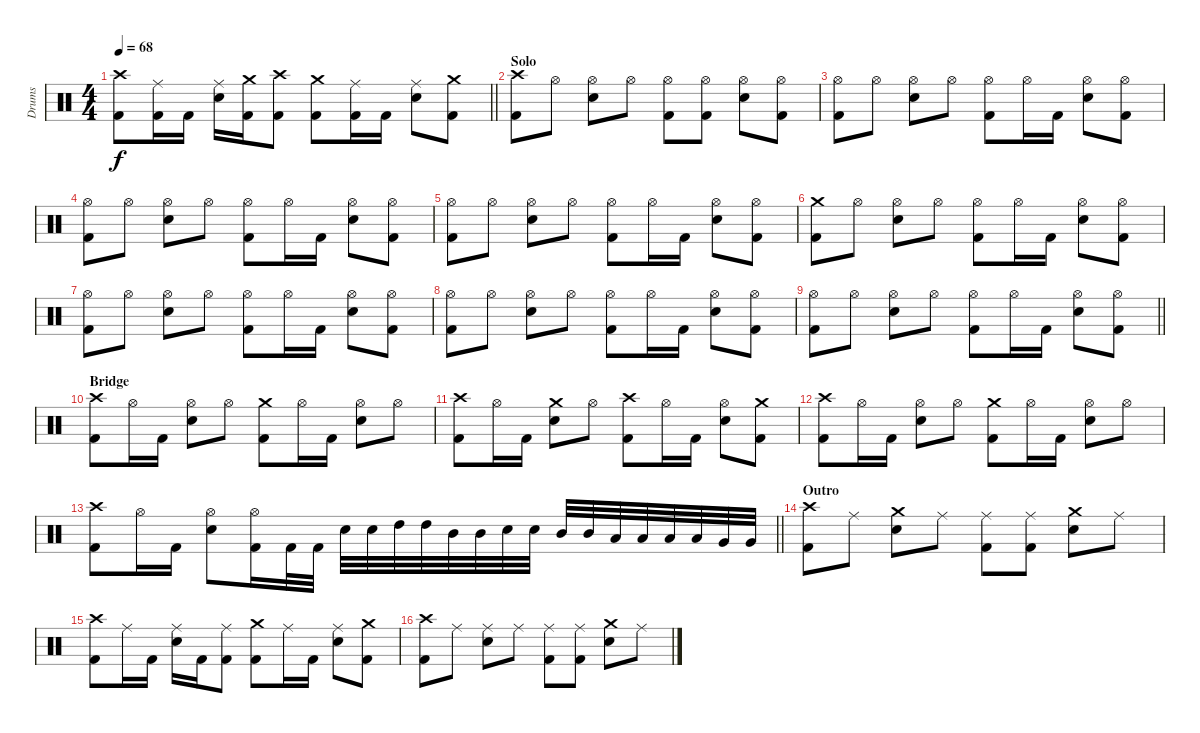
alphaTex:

\track ("Drums" "Drums") {instrument percussion}
\staff {score}
\articulation defaults
\ts (4 4)
\tempo 68
\clef neutral
\barLineRight lightlight
\ks c
("Crash high (hit)" "Kick (hit) 2").8{dy f} ("Ride (middle)" "Kick (hit) 2").16 "Kick (hit) 2".16 ("Ride (middle)" "Snare (hit) 2").16 ("Crash medium (hit)" "Kick (hit) 2").16 ("Crash high (hit)" "Kick (hit) 2").8 ("Crash medium (hit)" "Kick (hit) 2").8 ("Ride (middle)" "Kick (hit) 2").16 "Kick (hit) 2".16 ("Ride (middle)" "Snare (hit) 2").8 ("Crash medium (hit)" "Kick (hit) 2").8 |
\section ("" "Solo")
("Crash high (hit)" "Kick (hit) 2").8 "Hi-Hat (open)".8 ("Hi-Hat (open)" "Snare (hit) 2").8 "Hi-Hat (open)".8 ("Hi-Hat (open)" "Kick (hit) 2").8 ("Hi-Hat (open)" "Kick (hit) 2").8 ("Hi-Hat (open)" "Snare (hit) 2").8 ("Hi-Hat (open)" "Kick (hit) 2").8 |
("Hi-Hat (open)" "Kick (hit) 2").8 "Hi-Hat (open)".8 ("Hi-Hat (open)" "Snare (hit) 2").8 "Hi-Hat (open)".8 ("Hi-Hat (open)" "Kick (hit) 2").8 "Hi-Hat (open)".16 "Kick (hit) 2".16 ("Hi-Hat (open)" "Snare (hit) 2").8 ("Hi-Hat (open)" "Kick (hit) 2").8 |
("Hi-Hat (open)" "Kick (hit) 2").8 "Hi-Hat (open)".8 ("Hi-Hat (open)" "Snare (hit) 2").8 "Hi-Hat (open)".8 ("Hi-Hat (open)" "Kick (hit) 2").8 "Hi-Hat (open)".16 "Kick (hit) 2".16 ("Hi-Hat (open)" "Snare (hit) 2").8 ("Hi-Hat (open)" "Kick (hit) 2").8 |
("Hi-Hat (open)" "Kick (hit) 2").8 "Hi-Hat (open)".8 ("Hi-Hat (open)" "Snare (hit) 2").8 "Hi-Hat (open)".8 ("Hi-Hat (open)" "Kick (hit) 2").8 "Hi-Hat (open)".16 "Kick (hit) 2".16 ("Hi-Hat (open)" "Snare (hit) 2").8 ("Hi-Hat (open)" "Kick (hit) 2").8 |
("Crash medium (hit)" "Kick (hit) 2").8 "Hi-Hat (open)".8 ("Hi-Hat (open)" "Snare (hit) 2").8 "Hi-Hat (open)".8 ("Hi-Hat (open)" "Kick (hit) 2").8 "Hi-Hat (open)".16 "Kick (hit) 2".16 ("Hi-Hat (open)" "Snare (hit) 2").8 ("Hi-Hat (open)" "Kick (hit) 2").8 |
("Hi-Hat (open)" "Kick (hit) 2").8 "Hi-Hat (open)".8 ("Hi-Hat (open)" "Snare (hit) 2").8 "Hi-Hat (open)".8 ("Hi-Hat (open)" "Kick (hit) 2").8 "Hi-Hat (open)".16 "Kick (hit) 2".16 ("Hi-Hat (open)" "Snare (hit) 2").8 ("Hi-Hat (open)" "Kick (hit) 2").8 |
("Hi-Hat (open)" "Kick (hit) 2").8 "Hi-Hat (open)".8 ("Hi-Hat (open)" "Snare (hit) 2").8 "Hi-Hat (open)".8 ("Hi-Hat (open)" "Kick (hit) 2").8 "Hi-Hat (open)".16 "Kick (hit) 2".16 ("Hi-Hat (open)" "Snare (hit) 2").8 ("Hi-Hat (open)" "Kick (hit) 2").8 |
\barLineRight lightlight
("Hi-Hat (open)" "Kick (hit) 2").8 "Hi-Hat (open)".8 ("Hi-Hat (open)" "Snare (hit) 2").8 "Hi-Hat (open)".8 ("Hi-Hat (open)" "Kick (hit) 2").8 "Hi-Hat (open)".16 "Kick (hit) 2".16 ("Hi-Hat (open)" "Snare (hit) 2").8 ("Hi-Hat (open)" "Kick (hit) 2").8 |
\section ("" "Bridge")
("Crash high (hit)" "Kick (hit) 2").8 "Hi-Hat (open)".16 "Kick (hit) 2".16 ("Hi-Hat (open)" "Snare (hit) 2").8 "Hi-Hat (open)".8 ("Crash medium (hit)" "Kick (hit) 2").8 "Hi-Hat (open)".16 "Kick (hit) 2".16 ("Hi-Hat (open)" "Snare (hit) 2").8 "Hi-Hat (open)".8 |
("Crash high (hit)" "Kick (hit) 2").8 "Hi-Hat (open)".16 "Kick (hit) 2".16 ("Crash medium (hit)" "Snare (hit) 2").8 "Hi-Hat (open)".8 ("Crash high (hit)" "Kick (hit) 2").8 "Hi-Hat (open)".16 "Kick (hit) 2".16 ("Hi-Hat (open)" "Snare (hit) 2").8 ("Crash medium (hit)" "Kick (hit) 2").8 |
("Crash high (hit)" "Kick (hit) 2").8 "Hi-Hat (open)".16 "Kick (hit) 2".16 ("Hi-Hat (open)" "Snare (hit) 2").8 "Hi-Hat (open)".8 ("Crash medium (hit)" "Kick (hit) 2").8 "Hi-Hat (open)".16 "Kick (hit) 2".16 ("Hi-Hat (open)" "Snare (hit) 2").8 "Hi-Hat (open)".8 |
\barLineRight lightlight
("Crash high (hit)" "Kick (hit) 2").8 "Hi-Hat (open)".16 "Kick (hit) 2".16 ("Hi-Hat (open)" "Snare (hit) 2").8 ("Hi-Hat (open)" "Kick (hit) 2").16 "Kick (hit) 2".32 "Kick (hit) 2".32 "Snare (hit) 2".32 "Snare (hit) 2".32 "High Tom (hit)".32 "High Tom (hit)".32 "Mid Tom (hit)".32 "Mid Tom (hit)".32 "Snare (hit) 2".32 "Snare (hit) 2".32 "Mid Tom (hit)".32 "Mid Tom (hit)".32 "Low Tom (hit)".32 "Low Tom (hit)".32 "Low Tom (hit)".32 "Low Tom (hit)".32 "Very Low Tom (hit)".32 "Very Low Tom (hit)".32 |
\section ("" "Outro")
("Crash high (hit)" "Kick (hit) 2").8 "Ride (middle)".8 ("Crash medium (hit)" "Snare (hit) 2").8 "Ride (middle)".8 ("Ride (middle)" "Kick (hit) 2").8 ("Ride (middle)" "Kick (hit) 2").8 ("Crash medium (hit)" "Snare (hit) 2").8 "Ride (middle)".8 |
("Crash high (hit)" "Kick (hit) 2").8 "Ride (middle)".16 "Kick (hit) 2".16 ("Ride (middle)" "Snare (hit) 2").16 "Kick (hit) 2".16 ("Ride (middle)" "Kick (hit) 2").8 ("Crash medium (hit)" "Kick (hit) 2").8 "Ride (middle)".16 "Kick (hit) 2".16 ("Ride (middle)" "Snare (hit) 2").8 ("Crash medium (hit)" "Kick (hit) 2").8 |
("Crash high (hit)" "Kick (hit) 2").8 "Ride (middle)".8 ("Ride (middle)" "Snare (hit) 2").8 "Ride (middle)".8 ("Ride (middle)" "Kick (hit) 2").8 ("Ride (middle)" "Kick (hit) 2").8 ("Crash medium (hit)" "Snare (hit) 2").8 "Ride (middle)".8
